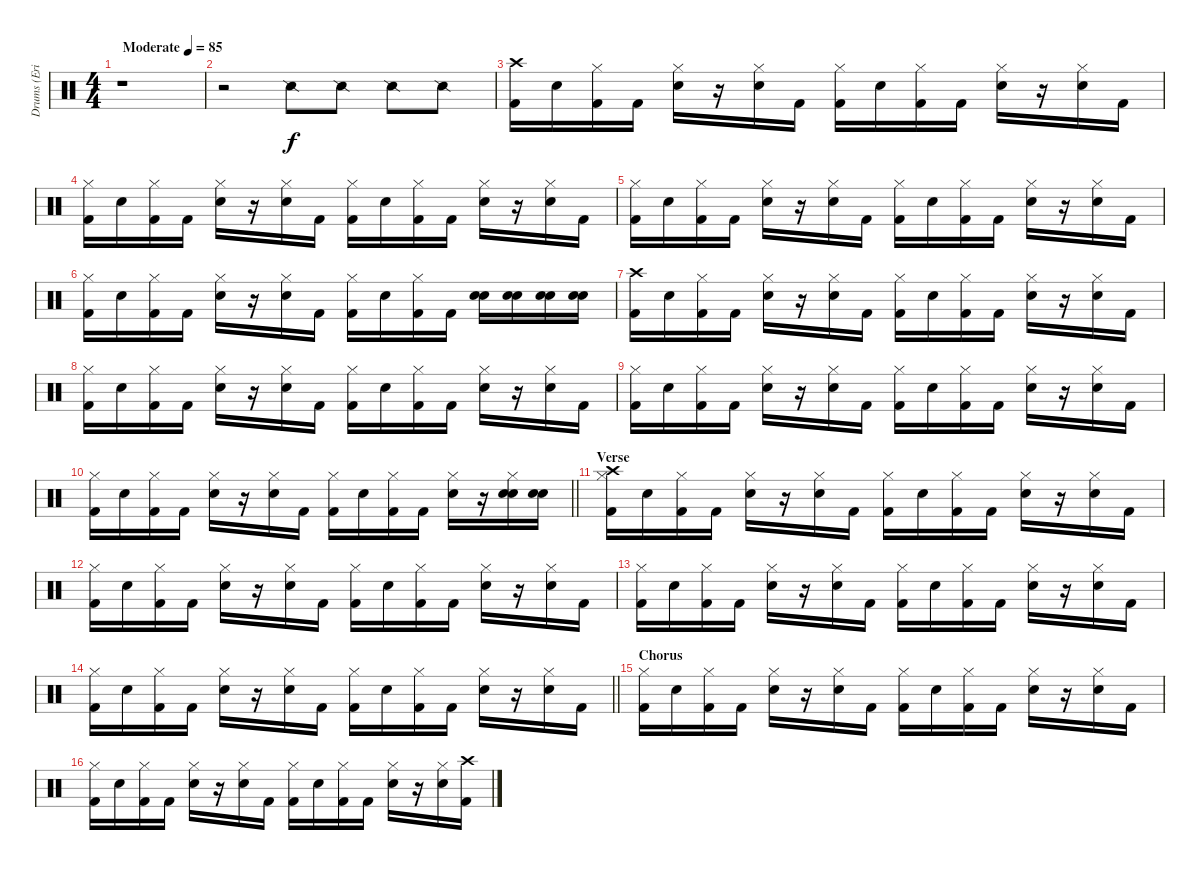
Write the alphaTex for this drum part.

\track ("Drums (Eric Kretz)" "Drums (Eri") {instrument percussion}
\staff {score}
\articulation defaults
\ts (4 4)
\tempo (85 "Moderate")
\clef neutral
\ks c
r.1{dy f} |
r.2 "Snare (side stick) 2".8 "Snare (side stick) 2".8 "Snare (side stick) 2".8 "Snare (side stick) 2".8 |
("Crash high (hit)" "Kick (hit) 2").16 "Electric Snare (hit)".16 ("Hi-Hat (closed)" "Kick (hit) 2").16 "Kick (hit) 2".16 ("Hi-Hat (closed)" "Electric Snare (hit)").16 r.16 ("Hi-Hat (closed)" "Electric Snare (hit)").16 "Kick (hit) 2".16 ("Hi-Hat (closed)" "Kick (hit) 2").16 "Electric Snare (hit)".16 ("Hi-Hat (closed)" "Kick (hit) 2").16 "Kick (hit) 2".16 ("Hi-Hat (closed)" "Electric Snare (hit)").16 r.16 ("Hi-Hat (closed)" "Electric Snare (hit)").16 "Kick (hit) 2".16 |
("Hi-Hat (closed)" "Kick (hit) 2").16 "Electric Snare (hit)".16 ("Hi-Hat (closed)" "Kick (hit) 2").16 "Kick (hit) 2".16 ("Hi-Hat (closed)" "Electric Snare (hit)").16 r.16 ("Hi-Hat (closed)" "Electric Snare (hit)").16 "Kick (hit) 2".16 ("Hi-Hat (closed)" "Kick (hit) 2").16 "Electric Snare (hit)".16 ("Hi-Hat (closed)" "Kick (hit) 2").16 "Kick (hit) 2".16 ("Hi-Hat (closed)" "Electric Snare (hit)").16 r.16 ("Hi-Hat (closed)" "Electric Snare (hit)").16 "Kick (hit) 2".16 |
("Hi-Hat (closed)" "Kick (hit) 2").16 "Electric Snare (hit)".16 ("Hi-Hat (closed)" "Kick (hit) 2").16 "Kick (hit) 2".16 ("Hi-Hat (closed)" "Electric Snare (hit)").16 r.16 ("Hi-Hat (closed)" "Electric Snare (hit)").16 "Kick (hit) 2".16 ("Hi-Hat (closed)" "Kick (hit) 2").16 "Electric Snare (hit)".16 ("Hi-Hat (closed)" "Kick (hit) 2").16 "Kick (hit) 2".16 ("Hi-Hat (closed)" "Electric Snare (hit)").16 r.16 ("Hi-Hat (closed)" "Electric Snare (hit)").16 "Kick (hit) 2".16 |
("Hi-Hat (closed)" "Kick (hit) 2").16 "Electric Snare (hit)".16 ("Hi-Hat (closed)" "Kick (hit) 2").16 "Kick (hit) 2".16 ("Hi-Hat (closed)" "Electric Snare (hit)").16 r.16 ("Hi-Hat (closed)" "Electric Snare (hit)").16 "Kick (hit) 2".16 ("Hi-Hat (closed)" "Kick (hit) 2").16 "Electric Snare (hit)".16 ("Hi-Hat (closed)" "Kick (hit) 2").16 "Kick (hit) 2".16 ("Snare (hit) 2" "Electric Snare (hit)").16 ("Snare (hit) 2" "Electric Snare (hit)").16 ("Snare (hit) 2" "Electric Snare (hit)").16 ("Snare (hit) 2" "Electric Snare (hit)").16 |
("Crash high (hit)" "Kick (hit) 2").16 "Electric Snare (hit)".16 ("Hi-Hat (closed)" "Kick (hit) 2").16 "Kick (hit) 2".16 ("Hi-Hat (closed)" "Electric Snare (hit)").16 r.16 ("Hi-Hat (closed)" "Electric Snare (hit)").16 "Kick (hit) 2".16 ("Hi-Hat (closed)" "Kick (hit) 2").16 "Electric Snare (hit)".16 ("Hi-Hat (closed)" "Kick (hit) 2").16 "Kick (hit) 2".16 ("Hi-Hat (closed)" "Electric Snare (hit)").16 r.16 ("Hi-Hat (closed)" "Electric Snare (hit)").16 "Kick (hit) 2".16 |
("Hi-Hat (closed)" "Kick (hit) 2").16 "Electric Snare (hit)".16 ("Hi-Hat (closed)" "Kick (hit) 2").16 "Kick (hit) 2".16 ("Hi-Hat (closed)" "Electric Snare (hit)").16 r.16 ("Hi-Hat (closed)" "Electric Snare (hit)").16 "Kick (hit) 2".16 ("Hi-Hat (closed)" "Kick (hit) 2").16 "Electric Snare (hit)".16 ("Hi-Hat (closed)" "Kick (hit) 2").16 "Kick (hit) 2".16 ("Hi-Hat (closed)" "Electric Snare (hit)").16 r.16 ("Hi-Hat (closed)" "Electric Snare (hit)").16 "Kick (hit) 2".16 |
("Hi-Hat (closed)" "Kick (hit) 2").16 "Electric Snare (hit)".16 ("Hi-Hat (closed)" "Kick (hit) 2").16 "Kick (hit) 2".16 ("Hi-Hat (closed)" "Electric Snare (hit)").16 r.16 ("Hi-Hat (closed)" "Electric Snare (hit)").16 "Kick (hit) 2".16 ("Hi-Hat (closed)" "Kick (hit) 2").16 "Electric Snare (hit)".16 ("Hi-Hat (closed)" "Kick (hit) 2").16 "Kick (hit) 2".16 ("Hi-Hat (closed)" "Electric Snare (hit)").16 r.16 ("Hi-Hat (closed)" "Electric Snare (hit)").16 "Kick (hit) 2".16 |
\barLineRight lightlight
("Hi-Hat (closed)" "Kick (hit) 2").16 "Electric Snare (hit)".16 ("Hi-Hat (closed)" "Kick (hit) 2").16 "Kick (hit) 2".16 ("Hi-Hat (closed)" "Electric Snare (hit)").16 r.16 ("Hi-Hat (closed)" "Electric Snare (hit)").16 "Kick (hit) 2".16 ("Hi-Hat (closed)" "Kick (hit) 2").16 "Electric Snare (hit)".16 ("Hi-Hat (closed)" "Kick (hit) 2").16 "Kick (hit) 2".16 ("Hi-Hat (closed)" "Electric Snare (hit)").16 r.16 ("Hi-Hat (closed)" "Snare (hit) 2" "Electric Snare (hit)").16 ("Snare (hit) 2" "Electric Snare (hit)").16 |
\section ("" "Verse")
("Hi-Hat (closed)" "Crash high (hit)" "Kick (hit) 2").16 "Electric Snare (hit)".16 ("Hi-Hat (closed)" "Kick (hit) 2").16 "Kick (hit) 2".16 ("Hi-Hat (closed)" "Electric Snare (hit)").16 r.16 ("Hi-Hat (closed)" "Electric Snare (hit)").16 "Kick (hit) 2".16 ("Hi-Hat (closed)" "Kick (hit) 2").16 "Electric Snare (hit)".16 ("Hi-Hat (closed)" "Kick (hit) 2").16 "Kick (hit) 2".16 ("Hi-Hat (closed)" "Electric Snare (hit)").16 r.16 ("Hi-Hat (closed)" "Electric Snare (hit)").16 "Kick (hit) 2".16 |
("Hi-Hat (closed)" "Kick (hit) 2").16 "Electric Snare (hit)".16 ("Hi-Hat (closed)" "Kick (hit) 2").16 "Kick (hit) 2".16 ("Hi-Hat (closed)" "Electric Snare (hit)").16 r.16 ("Hi-Hat (closed)" "Electric Snare (hit)").16 "Kick (hit) 2".16 ("Hi-Hat (closed)" "Kick (hit) 2").16 "Electric Snare (hit)".16 ("Hi-Hat (closed)" "Kick (hit) 2").16 "Kick (hit) 2".16 ("Hi-Hat (closed)" "Electric Snare (hit)").16 r.16 ("Hi-Hat (closed)" "Electric Snare (hit)").16 "Kick (hit) 2".16 |
("Hi-Hat (closed)" "Kick (hit) 2").16 "Electric Snare (hit)".16 ("Hi-Hat (closed)" "Kick (hit) 2").16 "Kick (hit) 2".16 ("Hi-Hat (closed)" "Electric Snare (hit)").16 r.16 ("Hi-Hat (closed)" "Electric Snare (hit)").16 "Kick (hit) 2".16 ("Hi-Hat (closed)" "Kick (hit) 2").16 "Electric Snare (hit)".16 ("Hi-Hat (closed)" "Kick (hit) 2").16 "Kick (hit) 2".16 ("Hi-Hat (closed)" "Electric Snare (hit)").16 r.16 ("Hi-Hat (closed)" "Electric Snare (hit)").16 "Kick (hit) 2".16 |
\barLineRight lightlight
("Hi-Hat (closed)" "Kick (hit) 2").16 "Electric Snare (hit)".16 ("Hi-Hat (closed)" "Kick (hit) 2").16 "Kick (hit) 2".16 ("Hi-Hat (closed)" "Electric Snare (hit)").16 r.16 ("Hi-Hat (closed)" "Electric Snare (hit)").16 "Kick (hit) 2".16 ("Hi-Hat (closed)" "Kick (hit) 2").16 "Electric Snare (hit)".16 ("Hi-Hat (closed)" "Kick (hit) 2").16 "Kick (hit) 2".16 ("Hi-Hat (closed)" "Electric Snare (hit)").16 r.16 ("Hi-Hat (closed)" "Electric Snare (hit)").16 "Kick (hit) 2".16 |
\section ("" "Chorus")
("Hi-Hat (closed)" "Kick (hit) 2").16 "Electric Snare (hit)".16 ("Hi-Hat (closed)" "Kick (hit) 2").16 "Kick (hit) 2".16 ("Hi-Hat (closed)" "Electric Snare (hit)").16 r.16 ("Hi-Hat (closed)" "Electric Snare (hit)").16 "Kick (hit) 2".16 ("Hi-Hat (closed)" "Kick (hit) 2").16 "Electric Snare (hit)".16 ("Hi-Hat (closed)" "Kick (hit) 2").16 "Kick (hit) 2".16 ("Hi-Hat (closed)" "Electric Snare (hit)").16 r.16 ("Hi-Hat (closed)" "Electric Snare (hit)").16 "Kick (hit) 2".16 |
("Hi-Hat (closed)" "Kick (hit) 2").16 "Electric Snare (hit)".16 ("Hi-Hat (closed)" "Kick (hit) 2").16 "Kick (hit) 2".16 ("Hi-Hat (closed)" "Electric Snare (hit)").16 r.16 ("Hi-Hat (closed)" "Electric Snare (hit)").16 "Kick (hit) 2".16 ("Hi-Hat (closed)" "Kick (hit) 2").16 "Electric Snare (hit)".16 ("Hi-Hat (closed)" "Kick (hit) 2").16 "Kick (hit) 2".16 ("Hi-Hat (closed)" "Electric Snare (hit)").16 r.16 ("Hi-Hat (closed)" "Electric Snare (hit)").16 ("Crash high (hit)" "Kick (hit) 2").16
